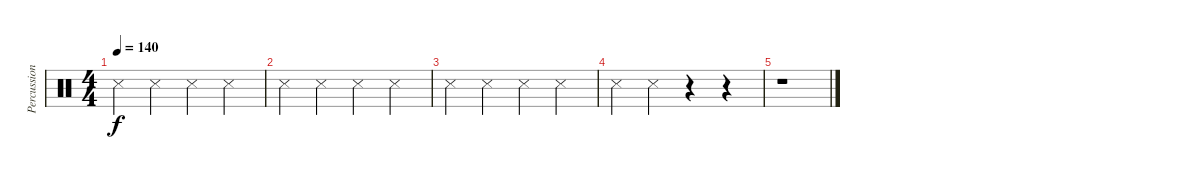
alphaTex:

\track ("Percussions" "Percussion") {instrument percussion}
\staff {score}
\articulation defaults
\ts (4 4)
\tempo 140
\clef neutral
\ks c "Metronome (hit)".4{dy f} "Metronome (hit)".4 "Metronome (hit)".4 "Metronome (hit)".4
|
"Metronome (hit)".4 "Metronome (hit)".4 "Metronome (hit)".4 "Metronome (hit)".4 |
"Metronome (hit)".4 "Metronome (hit)".4 "Metronome (hit)".4 "Metronome (hit)".4 |
"Metronome (hit)".4 "Metronome (hit)".4 r.4 r.4 |
r.1
